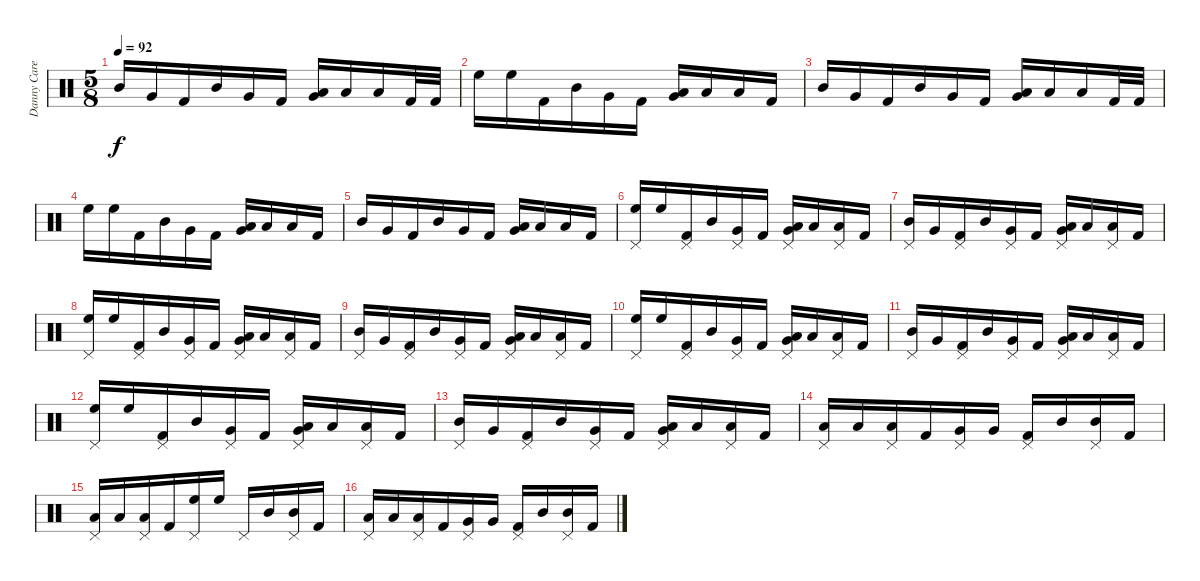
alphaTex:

\track ("Danny Carey" "Danny Care") {instrument percussion}
\staff {score}
\articulation defaults
\ts (5 8)
\tempo 92
\clef neutral
\ks c "Mid Tom (hit)".16{dy f} "Very Low Tom (hit)".16 "Kick (hit) 2".16 "Mid Tom (hit)".16 "Very Low Tom (hit)".16 "Kick (hit) 2".16
("Low Floor Tom (hit)" "Very Low Tom (hit)").16 "Low Floor Tom (hit)".16 "Low Floor Tom (hit)".16 "Kick (hit) 2".32 "Kick (hit) 2".32 |
"High Floor Tom (hit)".16 "High Floor Tom (hit)".16 "Kick (hit) 2".16 "Mid Tom (hit)".16 "Very Low Tom (hit)".16 "Kick (hit) 2".16 ("Low Floor Tom (hit)" "Very Low Tom (hit)").16 "Low Floor Tom (hit)".16 "Low Floor Tom (hit)".16 "Kick (hit) 2".16 |
"Mid Tom (hit)".16 "Very Low Tom (hit)".16 "Kick (hit) 2".16 "Mid Tom (hit)".16 "Very Low Tom (hit)".16 "Kick (hit) 2".16 ("Low Floor Tom (hit)" "Very Low Tom (hit)").16 "Low Floor Tom (hit)".16 "Low Floor Tom (hit)".16 "Kick (hit) 2".32 "Kick (hit) 2".32 |
"High Floor Tom (hit)".16 "High Floor Tom (hit)".16 "Kick (hit) 2".16 "Mid Tom (hit)".16 "Very Low Tom (hit)".16 "Kick (hit) 2".16 ("Low Floor Tom (hit)" "Very Low Tom (hit)").16 "Low Floor Tom (hit)".16 "Low Floor Tom (hit)".16 "Kick (hit) 2".16 |
"Mid Tom (hit)".16 "Very Low Tom (hit)".16 "Kick (hit) 2".16 "Mid Tom (hit)".16 "Very Low Tom (hit)".16 "Kick (hit) 2".16 ("Low Floor Tom (hit)" "Very Low Tom (hit)").16 "Low Floor Tom (hit)".16 "Low Floor Tom (hit)".16 "Kick (hit) 2".16 |
("Pedal Hi-Hat (hit)" "High Floor Tom (hit)").16 "High Floor Tom (hit)".16 ("Pedal Hi-Hat (hit)" "Kick (hit) 2").16 "Mid Tom (hit)".16 ("Pedal Hi-Hat (hit)" "Very Low Tom (hit)").16 "Kick (hit) 2".16 ("Pedal Hi-Hat (hit)" "Low Floor Tom (hit)" "Very Low Tom (hit)").16 "Low Floor Tom (hit)".16 ("Pedal Hi-Hat (hit)" "Low Floor Tom (hit)").16 "Kick (hit) 2".16 |
("Pedal Hi-Hat (hit)" "Mid Tom (hit)").16 "Very Low Tom (hit)".16 ("Pedal Hi-Hat (hit)" "Kick (hit) 2").16 "Mid Tom (hit)".16 ("Pedal Hi-Hat (hit)" "Very Low Tom (hit)").16 "Kick (hit) 2".16 ("Pedal Hi-Hat (hit)" "Low Floor Tom (hit)" "Very Low Tom (hit)").16 "Low Floor Tom (hit)".16 ("Pedal Hi-Hat (hit)" "Low Floor Tom (hit)").16 "Kick (hit) 2".16 |
("Pedal Hi-Hat (hit)" "High Floor Tom (hit)").16 "High Floor Tom (hit)".16 ("Pedal Hi-Hat (hit)" "Kick (hit) 2").16 "Mid Tom (hit)".16 ("Pedal Hi-Hat (hit)" "Very Low Tom (hit)").16 "Kick (hit) 2".16 ("Pedal Hi-Hat (hit)" "Low Floor Tom (hit)" "Very Low Tom (hit)").16 "Low Floor Tom (hit)".16 ("Pedal Hi-Hat (hit)" "Low Floor Tom (hit)").16 "Kick (hit) 2".16 |
("Pedal Hi-Hat (hit)" "Mid Tom (hit)").16 "Very Low Tom (hit)".16 ("Pedal Hi-Hat (hit)" "Kick (hit) 2").16 "Mid Tom (hit)".16 ("Pedal Hi-Hat (hit)" "Very Low Tom (hit)").16 "Kick (hit) 2".16 ("Pedal Hi-Hat (hit)" "Low Floor Tom (hit)" "Very Low Tom (hit)").16 "Low Floor Tom (hit)".16 ("Pedal Hi-Hat (hit)" "Low Floor Tom (hit)").16 "Kick (hit) 2".16 |
("Pedal Hi-Hat (hit)" "High Floor Tom (hit)").16 "High Floor Tom (hit)".16 ("Pedal Hi-Hat (hit)" "Kick (hit) 2").16 "Mid Tom (hit)".16 ("Pedal Hi-Hat (hit)" "Very Low Tom (hit)").16 "Kick (hit) 2".16 ("Pedal Hi-Hat (hit)" "Low Floor Tom (hit)" "Very Low Tom (hit)").16 "Low Floor Tom (hit)".16 ("Pedal Hi-Hat (hit)" "Low Floor Tom (hit)").16 "Kick (hit) 2".16 |
("Pedal Hi-Hat (hit)" "Mid Tom (hit)").16 "Very Low Tom (hit)".16 ("Pedal Hi-Hat (hit)" "Kick (hit) 2").16 "Mid Tom (hit)".16 ("Pedal Hi-Hat (hit)" "Very Low Tom (hit)").16 "Kick (hit) 2".16 ("Pedal Hi-Hat (hit)" "Low Floor Tom (hit)" "Very Low Tom (hit)").16 "Low Floor Tom (hit)".16 ("Pedal Hi-Hat (hit)" "Low Floor Tom (hit)").16 "Kick (hit) 2".16 |
("Pedal Hi-Hat (hit)" "High Floor Tom (hit)").16 "High Floor Tom (hit)".16 ("Pedal Hi-Hat (hit)" "Kick (hit) 2").16 "Mid Tom (hit)".16 ("Pedal Hi-Hat (hit)" "Very Low Tom (hit)").16 "Kick (hit) 2".16 ("Pedal Hi-Hat (hit)" "Low Floor Tom (hit)" "Very Low Tom (hit)").16 "Low Floor Tom (hit)".16 ("Pedal Hi-Hat (hit)" "Low Floor Tom (hit)").16 "Kick (hit) 2".16 |
("Pedal Hi-Hat (hit)" "Mid Tom (hit)").16 "Very Low Tom (hit)".16 ("Pedal Hi-Hat (hit)" "Kick (hit) 2").16 "Mid Tom (hit)".16 ("Pedal Hi-Hat (hit)" "Very Low Tom (hit)").16 "Kick (hit) 2".16 ("Pedal Hi-Hat (hit)" "Low Floor Tom (hit)" "Very Low Tom (hit)").16 "Low Floor Tom (hit)".16 ("Pedal Hi-Hat (hit)" "Low Floor Tom (hit)").16 "Kick (hit) 2".16 |
("Pedal Hi-Hat (hit)" "Low Floor Tom (hit)").16 "Low Floor Tom (hit)".16 ("Pedal Hi-Hat (hit)" "Low Floor Tom (hit)").16 "Kick (hit) 2".16 ("Pedal Hi-Hat (hit)" "Very Low Tom (hit)").16 "Very Low Tom (hit)".16 ("Pedal Hi-Hat (hit)" "Kick (hit) 2").16 "Mid Tom (hit)".16 ("Pedal Hi-Hat (hit)" "Mid Tom (hit)").16 "Kick (hit) 2".16 |
("Pedal Hi-Hat (hit)" "Low Floor Tom (hit)").16 "Low Floor Tom (hit)".16 ("Pedal Hi-Hat (hit)" "Low Floor Tom (hit)").16 "Kick (hit) 2".16 ("Pedal Hi-Hat (hit)" "High Floor Tom (hit)").16 "High Floor Tom (hit)".16 "Pedal Hi-Hat (hit)".16 "Mid Tom (hit)".16 ("Pedal Hi-Hat (hit)" "Mid Tom (hit)").16 "Kick (hit) 2".16 |
("Pedal Hi-Hat (hit)" "Low Floor Tom (hit)").16 "Low Floor Tom (hit)".16 ("Pedal Hi-Hat (hit)" "Low Floor Tom (hit)").16 "Kick (hit) 2".16 ("Pedal Hi-Hat (hit)" "Very Low Tom (hit)").16 "Very Low Tom (hit)".16 ("Pedal Hi-Hat (hit)" "Kick (hit) 2").16 "Mid Tom (hit)".16 ("Pedal Hi-Hat (hit)" "Mid Tom (hit)").16 "Kick (hit) 2".16
